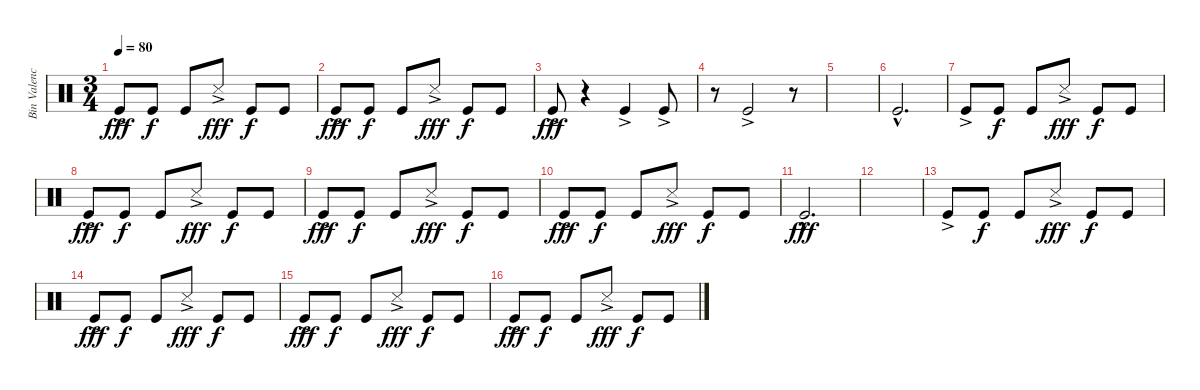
\track ("Bin Valencia- Bombo de Cuero" "Bin Valenc") {instrument percussion}
\staff {score}
\articulation defaults
\ts (3 4)
\tempo 80
\clef neutral
\ks c "Kick (hit)"{ac}.8{dy fff} "Kick (hit)".8{dy f} "Kick (hit)".8 "Snare (side stick) 3"{ac}.8{dy fff} "Kick (hit)".8{dy f} "Kick (hit)".8
|
"Kick (hit)"{ac}.8{dy fff} "Kick (hit)".8{dy f} "Kick (hit)".8 "Snare (side stick) 3"{ac}.8{dy fff} "Kick (hit)".8{dy f} "Kick (hit)".8 |
"Kick (hit)"{ac}.8{dy fff} r.4 "Kick (hit)"{ac}.4 "Kick (hit)"{ac}.8 |
r.8 "Kick (hit)"{ac}.2 r.8 |
|
"Kick (hit)"{hac}.2{d} |
"Kick (hit)"{ac}.8 "Kick (hit)".8{dy f} "Kick (hit)".8 "Snare (side stick) 3"{ac}.8{dy fff} "Kick (hit)".8{dy f} "Kick (hit)".8 |
"Kick (hit)"{ac}.8{dy fff} "Kick (hit)".8{dy f} "Kick (hit)".8 "Snare (side stick) 3"{ac}.8{dy fff} "Kick (hit)".8{dy f} "Kick (hit)".8 |
"Kick (hit)"{ac}.8{dy fff} "Kick (hit)".8{dy f} "Kick (hit)".8 "Snare (side stick) 3"{ac}.8{dy fff} "Kick (hit)".8{dy f} "Kick (hit)".8 |
"Kick (hit)"{ac}.8{dy fff} "Kick (hit)".8{dy f} "Kick (hit)".8 "Snare (side stick) 3"{ac}.8{dy fff} "Kick (hit)".8{dy f} "Kick (hit)".8 |
"Kick (hit)"{hac}.2{d dy fff} |
|
"Kick (hit)"{ac}.8 "Kick (hit)".8{dy f} "Kick (hit)".8 "Snare (side stick) 3"{ac}.8{dy fff} "Kick (hit)".8{dy f} "Kick (hit)".8 |
"Kick (hit)"{ac}.8{dy fff} "Kick (hit)".8{dy f} "Kick (hit)".8 "Snare (side stick) 3"{ac}.8{dy fff} "Kick (hit)".8{dy f} "Kick (hit)".8 |
"Kick (hit)"{ac}.8{dy fff} "Kick (hit)".8{dy f} "Kick (hit)".8 "Snare (side stick) 3"{ac}.8{dy fff} "Kick (hit)".8{dy f} "Kick (hit)".8 |
"Kick (hit)"{ac}.8{dy fff} "Kick (hit)".8{dy f} "Kick (hit)".8 "Snare (side stick) 3"{ac}.8{dy fff} "Kick (hit)".8{dy f} "Kick (hit)".8
